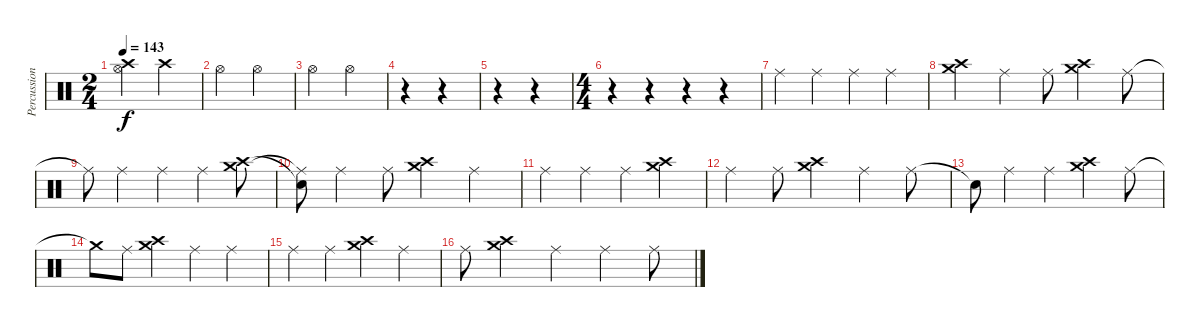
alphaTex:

\track ("Percussion2" "Percussion") {instrument percussion}
\staff {score}
\articulation defaults
\ts (2 4)
\tempo 143
\clef neutral
\ks c
("Crash high (hit)" "Hi-Hat (open)").4{dy f} "Crash high (hit)".4 |
"Hi-Hat (open)".4 "Hi-Hat (open)".4 |
"Hi-Hat (open)".4 "Hi-Hat (open)".4 |
r.4 r.4 |
r.4 r.4 |
\ts (4 4)
r.4 r.4 r.4 r.4 |
"Ride (middle)".4 "Ride (middle)".4 "Ride (middle)".4 "Ride (middle)".4 |
("Crash high (hit)" "Crash medium (hit)").4 "Ride (middle)".4 "Ride (middle)".8 ("Crash high (hit)" "Crash medium (hit)").4 "Ride (middle)".8 |
"Ride (middle)"{t}.8 "Ride (middle)".4 "Ride (middle)".4 "Ride (middle)".4 ("Crash high (hit)" "Crash medium (hit)").8 |
("Snare (hit)"{t} "Ride (middle)"{t}).8 "Ride (middle)".4 "Ride (middle)".8 ("Crash high (hit)" "Crash medium (hit)").4 "Ride (middle)".4 |
"Ride (middle)".4 "Ride (middle)".4 "Ride (middle)".4 ("Crash high (hit)" "Crash medium (hit)").4 |
"Ride (middle)".4 "Ride (middle)".8 ("Crash high (hit)" "Crash medium (hit)").4 "Ride (middle)".4 "Ride (middle)".8 |
"Snare (hit)"{t}.8 "Ride (middle)".4 "Ride (middle)".4 ("Crash high (hit)" "Crash medium (hit)").4 "Ride (middle)".8 |
"Crash medium (hit)"{t}.8 "Ride (middle)".8 ("Crash high (hit)" "Crash medium (hit)").4 "Ride (middle)".4 "Ride (middle)".4 |
"Ride (middle)".4 "Ride (middle)".4 ("Crash high (hit)" "Crash medium (hit)").4 "Ride (middle)".4 |
"Ride (middle)".8 ("Crash high (hit)" "Crash medium (hit)").4 "Ride (middle)".4 "Ride (middle)".4 "Ride (middle)".8
